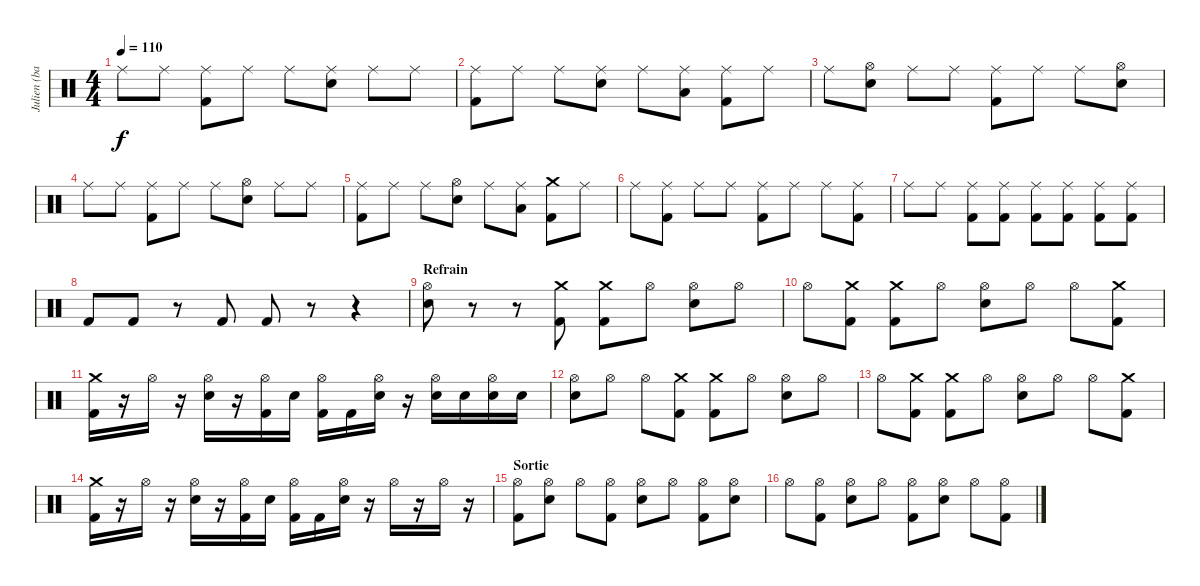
\track ("Julien (batterie)" "Julien (ba") {instrument percussion}
\staff {score}
\articulation defaults
\ts (4 4)
\tempo 110
\clef neutral
\ks c "Ride (middle)".8{dy f} "Ride (middle)".8
("Ride (middle)" "Kick (hit) 2").8 "Ride (middle)".8 "Ride (middle)".8 ("Ride (middle)" "Electric Snare (hit)").8 "Ride (middle)".8 "Ride (middle)".8 |
("Ride (middle)" "Kick (hit) 2").8 "Ride (middle)".8 "Ride (middle)".8 ("Ride (middle)" "Electric Snare (hit)").8 "Ride (middle)".8 ("Ride (middle)" "Low Tom (hit)").8 ("Ride (middle)" "Kick (hit) 2").8 "Ride (middle)".8 |
"Ride (middle)".8 ("Hi-Hat (open)" "Electric Snare (hit)").8 "Ride (middle)".8 "Ride (middle)".8 ("Ride (middle)" "Kick (hit) 2").8 "Ride (middle)".8 "Ride (middle)".8 ("Hi-Hat (open)" "Electric Snare (hit)").8 |
"Ride (middle)".8 "Ride (middle)".8 ("Ride (middle)" "Kick (hit) 2").8 "Ride (middle)".8 "Ride (middle)".8 ("Hi-Hat (open)" "Electric Snare (hit)").8 "Ride (middle)".8 "Ride (middle)".8 |
("Ride (middle)" "Kick (hit) 2").8 "Ride (middle)".8 "Ride (middle)".8 ("Hi-Hat (open)" "Electric Snare (hit)").8 "Ride (middle)".8 ("Ride (middle)" "Low Tom (hit)").8 ("Crash medium (hit)" "Kick (hit) 2").8 "Ride (middle)".8 |
"Ride (middle)".8 ("Ride (middle)" "Kick (hit) 2").8 "Ride (middle)".8 "Ride (middle)".8 ("Ride (middle)" "Kick (hit) 2").8 "Ride (middle)".8 "Ride (middle)".8 ("Ride (middle)" "Kick (hit) 2").8 |
"Ride (middle)".8 "Ride (middle)".8 ("Ride (middle)" "Kick (hit) 2").8 ("Ride (middle)" "Kick (hit) 2").8 ("Ride (middle)" "Kick (hit) 2").8 ("Ride (middle)" "Kick (hit) 2").8 ("Ride (middle)" "Kick (hit) 2").8 ("Ride (middle)" "Kick (hit) 2").8 |
"Kick (hit) 2".8 "Kick (hit) 2".8 r.8 "Kick (hit) 2".8 "Kick (hit) 2".8 r.8 r.4 |
\section ("" "Refrain")
("Hi-Hat (open)" "Electric Snare (hit)").8 r.8 r.8 ("Crash medium (hit)" "Kick (hit) 2").8 ("Crash medium (hit)" "Kick (hit) 2").8 "Hi-Hat (open)".8 ("Hi-Hat (open)" "Electric Snare (hit)").8 "Hi-Hat (open)".8 |
"Hi-Hat (open)".8 ("Crash medium (hit)" "Kick (hit) 2").8 ("Crash medium (hit)" "Kick (hit) 2").8 "Hi-Hat (open)".8 ("Hi-Hat (open)" "Electric Snare (hit)").8 "Hi-Hat (open)".8 "Hi-Hat (open)".8 ("Crash medium (hit)" "Kick (hit) 2").8 |
("Crash medium (hit)" "Kick (hit) 2").16 r.16 "Hi-Hat (open)".16 r.16 ("Hi-Hat (open)" "Electric Snare (hit)").16 r.16 ("Hi-Hat (open)" "Kick (hit) 2").16 "Electric Snare (hit)".16 ("Hi-Hat (open)" "Kick (hit) 2").16 "Kick (hit) 2".16 ("Hi-Hat (open)" "Electric Snare (hit)").16 r.16 ("Hi-Hat (open)" "Electric Snare (hit)").16 "Electric Snare (hit)".16 ("Hi-Hat (open)" "Electric Snare (hit)").16 "Electric Snare (hit)".16 |
("Hi-Hat (open)" "Electric Snare (hit)").8 "Hi-Hat (open)".8 "Hi-Hat (open)".8 ("Crash medium (hit)" "Kick (hit) 2").8 ("Crash medium (hit)" "Kick (hit) 2").8 "Hi-Hat (open)".8 ("Hi-Hat (open)" "Electric Snare (hit)").8 "Hi-Hat (open)".8 |
"Hi-Hat (open)".8 ("Crash medium (hit)" "Kick (hit) 2").8 ("Crash medium (hit)" "Kick (hit) 2").8 "Hi-Hat (open)".8 ("Hi-Hat (open)" "Electric Snare (hit)").8 "Hi-Hat (open)".8 "Hi-Hat (open)".8 ("Crash medium (hit)" "Kick (hit) 2").8 |
("Crash medium (hit)" "Kick (hit) 2").16 r.16 "Hi-Hat (open)".16 r.16 ("Hi-Hat (open)" "Electric Snare (hit)").16 r.16 ("Hi-Hat (open)" "Kick (hit) 2").16 "Electric Snare (hit)".16 ("Hi-Hat (open)" "Kick (hit) 2").16 "Kick (hit) 2".16 ("Hi-Hat (open)" "Electric Snare (hit)").16 r.16 "Hi-Hat (open)".16 r.16 "Hi-Hat (open)".16 r.16 |
\section ("" "Sortie")
("Hi-Hat (open)" "Kick (hit) 2").8 ("Hi-Hat (open)" "Electric Snare (hit)").8 "Hi-Hat (open)".8 ("Hi-Hat (open)" "Kick (hit) 2").8 ("Hi-Hat (open)" "Electric Snare (hit)").8 "Hi-Hat (open)".8 ("Hi-Hat (open)" "Kick (hit) 2").8 ("Hi-Hat (open)" "Electric Snare (hit)").8 |
"Hi-Hat (open)".8 ("Hi-Hat (open)" "Kick (hit) 2").8 ("Hi-Hat (open)" "Electric Snare (hit)").8 "Hi-Hat (open)".8 ("Hi-Hat (open)" "Kick (hit) 2").8 ("Hi-Hat (open)" "Electric Snare (hit)").8 "Hi-Hat (open)".8 ("Hi-Hat (open)" "Kick (hit) 2").8
